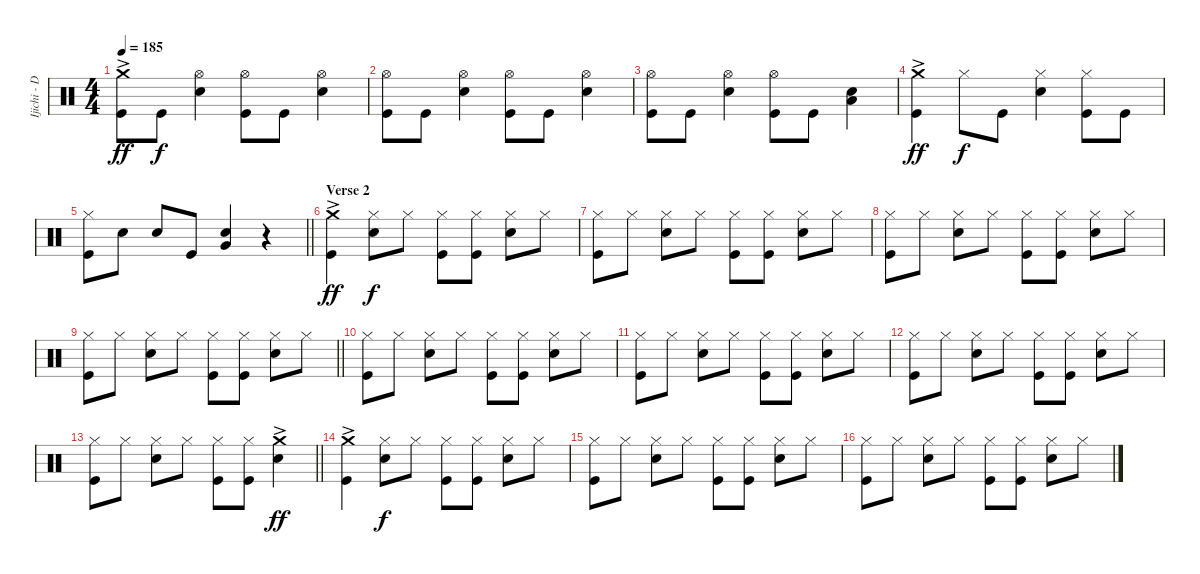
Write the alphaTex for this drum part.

\track ("Ijichi - Drums" "Ijichi - D") {instrument percussion}
\staff
\articulation defaults
\ts (4 4)
\tempo 185
\clef neutral
\ks c
("Crash medium (hit)"{ac} "Kick (hit)").8{dy ff} "Kick (hit)".8{dy f} ("Hi-Hat (open)" "Electric Snare (hit)").4 ("Hi-Hat (open)" "Kick (hit)").8 "Kick (hit)".8 ("Hi-Hat (open)" "Electric Snare (hit)").4 |
("Hi-Hat (open)" "Kick (hit)").8 "Kick (hit)".8 ("Hi-Hat (open)" "Electric Snare (hit)").4 ("Hi-Hat (open)" "Kick (hit)").8 "Kick (hit)".8 ("Hi-Hat (open)" "Electric Snare (hit)").4 |
("Hi-Hat (open)" "Kick (hit)").8 "Kick (hit)".8 ("Hi-Hat (open)" "Electric Snare (hit)").4 ("Hi-Hat (open)" "Kick (hit)").8 "Kick (hit)".8 ("Electric Snare (hit)" "Low Tom (hit)").4 |
("Crash medium (hit)"{ac} "Kick (hit)").4{dy ff} "Hi-Hat (closed)".8{dy f} "Kick (hit)".8 ("Hi-Hat (closed)" "Electric Snare (hit)").4 ("Hi-Hat (closed)" "Kick (hit)").8 "Kick (hit)".8 |
\barLineRight lightlight
("Hi-Hat (closed)" "Kick (hit)").8 "Electric Snare (hit)".8 "Electric Snare (hit)".8 "Kick (hit)".8 ("Electric Snare (hit)" "Very Low Tom (hit)").4 r.4 |
\section ("" "Verse 2")
("Crash medium (hit)"{ac} "Kick (hit)").4{dy ff} ("Hi-Hat (closed)" "Electric Snare (hit)").8{dy f} "Hi-Hat (closed)".8 ("Hi-Hat (closed)" "Kick (hit)").8 ("Hi-Hat (closed)" "Kick (hit)").8 ("Hi-Hat (closed)" "Electric Snare (hit)").8 "Hi-Hat (closed)".8 |
("Hi-Hat (closed)" "Kick (hit)").8 "Hi-Hat (closed)".8 ("Hi-Hat (closed)" "Electric Snare (hit)").8 "Hi-Hat (closed)".8 ("Hi-Hat (closed)" "Kick (hit)").8 ("Hi-Hat (closed)" "Kick (hit)").8 ("Hi-Hat (closed)" "Electric Snare (hit)").8 "Hi-Hat (closed)".8 |
("Hi-Hat (closed)" "Kick (hit)").8 "Hi-Hat (closed)".8 ("Hi-Hat (closed)" "Electric Snare (hit)").8 "Hi-Hat (closed)".8 ("Hi-Hat (closed)" "Kick (hit)").8 ("Hi-Hat (closed)" "Kick (hit)").8 ("Hi-Hat (closed)" "Electric Snare (hit)").8 "Hi-Hat (closed)".8 |
\barLineRight lightlight
("Hi-Hat (closed)" "Kick (hit)").8 "Hi-Hat (closed)".8 ("Hi-Hat (closed)" "Electric Snare (hit)").8 "Hi-Hat (closed)".8 ("Hi-Hat (closed)" "Kick (hit)").8 ("Hi-Hat (closed)" "Kick (hit)").8 ("Hi-Hat (closed)" "Electric Snare (hit)").8 "Hi-Hat (closed)".8 |
("Hi-Hat (closed)" "Kick (hit)").8 "Hi-Hat (closed)".8 ("Hi-Hat (closed)" "Electric Snare (hit)").8 "Hi-Hat (closed)".8 ("Hi-Hat (closed)" "Kick (hit)").8 ("Hi-Hat (closed)" "Kick (hit)").8 ("Hi-Hat (closed)" "Electric Snare (hit)").8 "Hi-Hat (closed)".8 |
("Hi-Hat (closed)" "Kick (hit)").8 "Hi-Hat (closed)".8 ("Hi-Hat (closed)" "Electric Snare (hit)").8 "Hi-Hat (closed)".8 ("Hi-Hat (closed)" "Kick (hit)").8 ("Hi-Hat (closed)" "Kick (hit)").8 ("Hi-Hat (closed)" "Electric Snare (hit)").8 "Hi-Hat (closed)".8 |
("Hi-Hat (closed)" "Kick (hit)").8 "Hi-Hat (closed)".8 ("Hi-Hat (closed)" "Electric Snare (hit)").8 "Hi-Hat (closed)".8 ("Hi-Hat (closed)" "Kick (hit)").8 ("Hi-Hat (closed)" "Kick (hit)").8 ("Hi-Hat (closed)" "Electric Snare (hit)").8 "Hi-Hat (closed)".8 |
\barLineRight lightlight
("Hi-Hat (closed)" "Kick (hit)").8 "Hi-Hat (closed)".8 ("Hi-Hat (closed)" "Electric Snare (hit)").8 "Hi-Hat (closed)".8 ("Hi-Hat (closed)" "Kick (hit)").8 ("Hi-Hat (closed)" "Kick (hit)").8 ("Crash medium (hit)"{ac} "Electric Snare (hit)").4{dy ff} |
("Crash medium (hit)"{ac} "Kick (hit)").4 ("Hi-Hat (closed)" "Electric Snare (hit)").8{dy f} "Hi-Hat (closed)".8 ("Hi-Hat (closed)" "Kick (hit)").8 ("Hi-Hat (closed)" "Kick (hit)").8 ("Hi-Hat (closed)" "Electric Snare (hit)").8 "Hi-Hat (closed)".8 |
("Hi-Hat (closed)" "Kick (hit)").8 "Hi-Hat (closed)".8 ("Hi-Hat (closed)" "Electric Snare (hit)").8 "Hi-Hat (closed)".8 ("Hi-Hat (closed)" "Kick (hit)").8 ("Hi-Hat (closed)" "Kick (hit)").8 ("Hi-Hat (closed)" "Electric Snare (hit)").8 "Hi-Hat (closed)".8 |
("Hi-Hat (closed)" "Kick (hit)").8 "Hi-Hat (closed)".8 ("Hi-Hat (closed)" "Electric Snare (hit)").8 "Hi-Hat (closed)".8 ("Hi-Hat (closed)" "Kick (hit)").8 ("Hi-Hat (closed)" "Kick (hit)").8 ("Hi-Hat (closed)" "Electric Snare (hit)").8 "Hi-Hat (closed)".8
